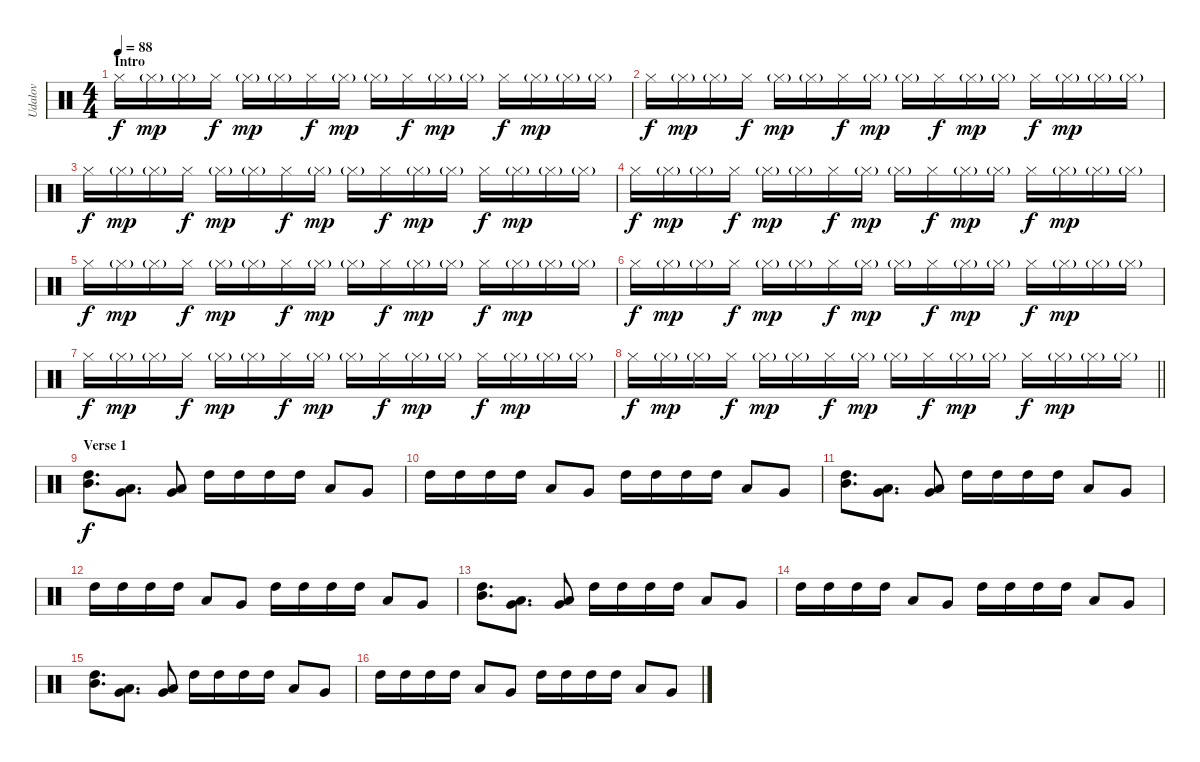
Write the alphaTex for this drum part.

\track ("Udalov" "Udalov") {instrument percussion}
\staff {score}
\articulation defaults
\ts (4 4)
\section ("" "Intro")
\tempo 88
\clef neutral
\ks c "Hi-Hat (closed)".16{dy f} "Hi-Hat (closed)"{g}.16{dy mp} "Hi-Hat (closed)"{g}.16 "Hi-Hat (closed)".16{dy f} "Hi-Hat (closed)"{g}.16{dy mp} "Hi-Hat (closed)"{g}.16 "Hi-Hat (closed)".16{dy f} "Hi-Hat (closed)"{g}.16{dy mp} "Hi-Hat (closed)"{g}.16 "Hi-Hat (closed)".16{dy f} "Hi-Hat (closed)"{g}.16{dy mp} "Hi-Hat (closed)"{g}.16 "Hi-Hat (closed)".16{dy f} "Hi-Hat (closed)"{g}.16{dy mp} "Hi-Hat (closed)"{g}.16 "Hi-Hat (closed)"{g}.16
|
"Hi-Hat (closed)".16{dy f} "Hi-Hat (closed)"{g}.16{dy mp} "Hi-Hat (closed)"{g}.16 "Hi-Hat (closed)".16{dy f} "Hi-Hat (closed)"{g}.16{dy mp} "Hi-Hat (closed)"{g}.16 "Hi-Hat (closed)".16{dy f} "Hi-Hat (closed)"{g}.16{dy mp} "Hi-Hat (closed)"{g}.16 "Hi-Hat (closed)".16{dy f} "Hi-Hat (closed)"{g}.16{dy mp} "Hi-Hat (closed)"{g}.16 "Hi-Hat (closed)".16{dy f} "Hi-Hat (closed)"{g}.16{dy mp} "Hi-Hat (closed)"{g}.16 "Hi-Hat (closed)"{g}.16 |
"Hi-Hat (closed)".16{dy f} "Hi-Hat (closed)"{g}.16{dy mp} "Hi-Hat (closed)"{g}.16 "Hi-Hat (closed)".16{dy f} "Hi-Hat (closed)"{g}.16{dy mp} "Hi-Hat (closed)"{g}.16 "Hi-Hat (closed)".16{dy f} "Hi-Hat (closed)"{g}.16{dy mp} "Hi-Hat (closed)"{g}.16 "Hi-Hat (closed)".16{dy f} "Hi-Hat (closed)"{g}.16{dy mp} "Hi-Hat (closed)"{g}.16 "Hi-Hat (closed)".16{dy f} "Hi-Hat (closed)"{g}.16{dy mp} "Hi-Hat (closed)"{g}.16 "Hi-Hat (closed)"{g}.16 |
"Hi-Hat (closed)".16{dy f} "Hi-Hat (closed)"{g}.16{dy mp} "Hi-Hat (closed)"{g}.16 "Hi-Hat (closed)".16{dy f} "Hi-Hat (closed)"{g}.16{dy mp} "Hi-Hat (closed)"{g}.16 "Hi-Hat (closed)".16{dy f} "Hi-Hat (closed)"{g}.16{dy mp} "Hi-Hat (closed)"{g}.16 "Hi-Hat (closed)".16{dy f} "Hi-Hat (closed)"{g}.16{dy mp} "Hi-Hat (closed)"{g}.16 "Hi-Hat (closed)".16{dy f} "Hi-Hat (closed)"{g}.16{dy mp} "Hi-Hat (closed)"{g}.16 "Hi-Hat (closed)"{g}.16 |
"Hi-Hat (closed)".16{dy f} "Hi-Hat (closed)"{g}.16{dy mp} "Hi-Hat (closed)"{g}.16 "Hi-Hat (closed)".16{dy f} "Hi-Hat (closed)"{g}.16{dy mp} "Hi-Hat (closed)"{g}.16 "Hi-Hat (closed)".16{dy f} "Hi-Hat (closed)"{g}.16{dy mp} "Hi-Hat (closed)"{g}.16 "Hi-Hat (closed)".16{dy f} "Hi-Hat (closed)"{g}.16{dy mp} "Hi-Hat (closed)"{g}.16 "Hi-Hat (closed)".16{dy f} "Hi-Hat (closed)"{g}.16{dy mp} "Hi-Hat (closed)"{g}.16 "Hi-Hat (closed)"{g}.16 |
"Hi-Hat (closed)".16{dy f} "Hi-Hat (closed)"{g}.16{dy mp} "Hi-Hat (closed)"{g}.16 "Hi-Hat (closed)".16{dy f} "Hi-Hat (closed)"{g}.16{dy mp} "Hi-Hat (closed)"{g}.16 "Hi-Hat (closed)".16{dy f} "Hi-Hat (closed)"{g}.16{dy mp} "Hi-Hat (closed)"{g}.16 "Hi-Hat (closed)".16{dy f} "Hi-Hat (closed)"{g}.16{dy mp} "Hi-Hat (closed)"{g}.16 "Hi-Hat (closed)".16{dy f} "Hi-Hat (closed)"{g}.16{dy mp} "Hi-Hat (closed)"{g}.16 "Hi-Hat (closed)"{g}.16 |
"Hi-Hat (closed)".16{dy f} "Hi-Hat (closed)"{g}.16{dy mp} "Hi-Hat (closed)"{g}.16 "Hi-Hat (closed)".16{dy f} "Hi-Hat (closed)"{g}.16{dy mp} "Hi-Hat (closed)"{g}.16 "Hi-Hat (closed)".16{dy f} "Hi-Hat (closed)"{g}.16{dy mp} "Hi-Hat (closed)"{g}.16 "Hi-Hat (closed)".16{dy f} "Hi-Hat (closed)"{g}.16{dy mp} "Hi-Hat (closed)"{g}.16 "Hi-Hat (closed)".16{dy f} "Hi-Hat (closed)"{g}.16{dy mp} "Hi-Hat (closed)"{g}.16 "Hi-Hat (closed)"{g}.16 |
\barLineRight lightlight "Hi-Hat (closed)".16{dy f} "Hi-Hat (closed)"{g}.16{dy mp} "Hi-Hat (closed)"{g}.16 "Hi-Hat (closed)".16{dy f} "Hi-Hat (closed)"{g}.16{dy mp} "Hi-Hat (closed)"{g}.16 "Hi-Hat (closed)".16{dy f} "Hi-Hat (closed)"{g}.16{dy mp} "Hi-Hat (closed)"{g}.16 "Hi-Hat (closed)".16{dy f} "Hi-Hat (closed)"{g}.16{dy mp} "Hi-Hat (closed)"{g}.16 "Hi-Hat (closed)".16{dy f} "Hi-Hat (closed)"{g}.16{dy mp} "Hi-Hat (closed)"{g}.16 "Hi-Hat (closed)"{g}.16
|
\section ("" "Verse 1")
("High Tom (hit)" "Mid Tom (hit)").8{d dy f} ("Low Tom (hit)" "Very Low Tom (hit)").8{d} ("Very Low Tom (hit)" "Low Floor Tom (hit)").8 "High Tom (hit)".16 "High Tom (hit)".16 "High Tom (hit)".16 "High Tom (hit)".16 "Low Tom (hit)".8 "Very Low Tom (hit)".8 |
"High Tom (hit)".16 "High Tom (hit)".16 "High Tom (hit)".16 "High Tom (hit)".16 "Low Tom (hit)".8 "Very Low Tom (hit)".8 "High Tom (hit)".16 "High Tom (hit)".16 "High Tom (hit)".16 "High Tom (hit)".16 "Low Tom (hit)".8 "Very Low Tom (hit)".8 |
("High Tom (hit)" "Mid Tom (hit)").8{d} ("Low Tom (hit)" "Very Low Tom (hit)").8{d} ("Very Low Tom (hit)" "Low Floor Tom (hit)").8 "High Tom (hit)".16 "High Tom (hit)".16 "High Tom (hit)".16 "High Tom (hit)".16 "Low Tom (hit)".8 "Very Low Tom (hit)".8 |
"High Tom (hit)".16 "High Tom (hit)".16 "High Tom (hit)".16 "High Tom (hit)".16 "Low Tom (hit)".8 "Very Low Tom (hit)".8 "High Tom (hit)".16 "High Tom (hit)".16 "High Tom (hit)".16 "High Tom (hit)".16 "Low Tom (hit)".8 "Very Low Tom (hit)".8 |
("High Tom (hit)" "Mid Tom (hit)").8{d} ("Low Tom (hit)" "Very Low Tom (hit)").8{d} ("Very Low Tom (hit)" "Low Floor Tom (hit)").8 "High Tom (hit)".16 "High Tom (hit)".16 "High Tom (hit)".16 "High Tom (hit)".16 "Low Tom (hit)".8 "Very Low Tom (hit)".8 |
"High Tom (hit)".16 "High Tom (hit)".16 "High Tom (hit)".16 "High Tom (hit)".16 "Low Tom (hit)".8 "Very Low Tom (hit)".8 "High Tom (hit)".16 "High Tom (hit)".16 "High Tom (hit)".16 "High Tom (hit)".16 "Low Tom (hit)".8 "Very Low Tom (hit)".8 |
("High Tom (hit)" "Mid Tom (hit)").8{d} ("Low Tom (hit)" "Very Low Tom (hit)").8{d} ("Very Low Tom (hit)" "Low Floor Tom (hit)").8 "High Tom (hit)".16 "High Tom (hit)".16 "High Tom (hit)".16 "High Tom (hit)".16 "Low Tom (hit)".8 "Very Low Tom (hit)".8 |
"High Tom (hit)".16 "High Tom (hit)".16 "High Tom (hit)".16 "High Tom (hit)".16 "Low Tom (hit)".8 "Very Low Tom (hit)".8 "High Tom (hit)".16 "High Tom (hit)".16 "High Tom (hit)".16 "High Tom (hit)".16 "Low Tom (hit)".8 "Very Low Tom (hit)".8
